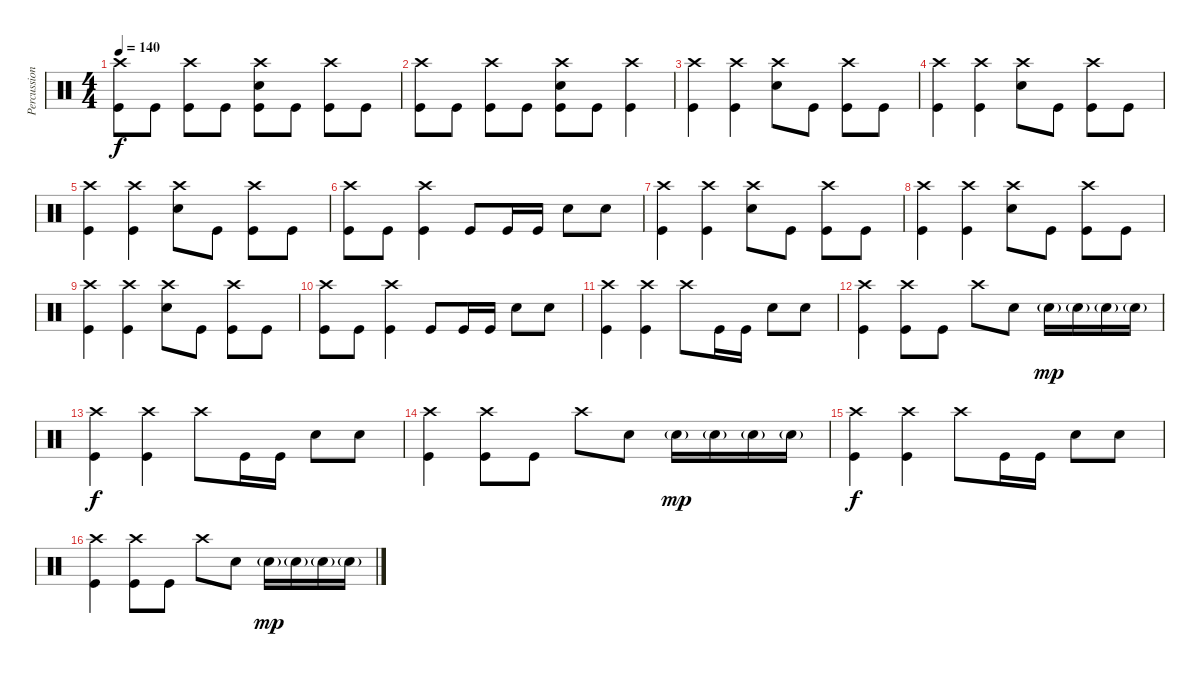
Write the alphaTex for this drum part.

\track ("Percussion" "Percussion") {instrument percussion}
\staff {score}
\articulation defaults
\ts (4 4)
\tempo 140
\clef neutral
\ks c
("Crash high (hit)" "Kick (hit)").8{dy f} "Kick (hit)".8 ("Crash high (hit)" "Kick (hit)").8 "Kick (hit)".8 ("Crash high (hit)" "Electric Snare (hit)" "Kick (hit)").8 "Kick (hit)".8 ("Crash high (hit)" "Kick (hit)").8 "Kick (hit)".8 |
("Crash high (hit)" "Kick (hit)").8 "Kick (hit)".8 ("Crash high (hit)" "Kick (hit)").8 "Kick (hit)".8 ("Crash high (hit)" "Electric Snare (hit)" "Kick (hit)").8 "Kick (hit)".8 ("Crash high (hit)" "Kick (hit)").4 |
("Crash high (hit)" "Kick (hit)").4 ("Crash high (hit)" "Kick (hit)").4 ("Crash high (hit)" "Electric Snare (hit)").8 "Kick (hit)".8 ("Crash high (hit)" "Kick (hit)").8 "Kick (hit)".8 |
("Crash high (hit)" "Kick (hit)").4 ("Crash high (hit)" "Kick (hit)").4 ("Crash high (hit)" "Electric Snare (hit)").8 "Kick (hit)".8 ("Crash high (hit)" "Kick (hit)").8 "Kick (hit)".8 |
("Crash high (hit)" "Kick (hit)").4 ("Crash high (hit)" "Kick (hit)").4 ("Crash high (hit)" "Electric Snare (hit)").8 "Kick (hit)".8 ("Crash high (hit)" "Kick (hit)").8 "Kick (hit)".8 |
("Crash high (hit)" "Kick (hit)").8 "Kick (hit)".8 ("Crash high (hit)" "Kick (hit)").4 "Kick (hit)".8 "Kick (hit)".16 "Kick (hit)".16 "Electric Snare (hit)".8 "Electric Snare (hit)".8 |
("Crash high (hit)" "Kick (hit)").4 ("Crash high (hit)" "Kick (hit)").4 ("Crash high (hit)" "Electric Snare (hit)").8 "Kick (hit)".8 ("Crash high (hit)" "Kick (hit)").8 "Kick (hit)".8 |
("Crash high (hit)" "Kick (hit)").4 ("Crash high (hit)" "Kick (hit)").4 ("Crash high (hit)" "Electric Snare (hit)").8 "Kick (hit)".8 ("Crash high (hit)" "Kick (hit)").8 "Kick (hit)".8 |
("Crash high (hit)" "Kick (hit)").4 ("Crash high (hit)" "Kick (hit)").4 ("Crash high (hit)" "Electric Snare (hit)").8 "Kick (hit)".8 ("Crash high (hit)" "Kick (hit)").8 "Kick (hit)".8 |
("Crash high (hit)" "Kick (hit)").8 "Kick (hit)".8 ("Crash high (hit)" "Kick (hit)").4 "Kick (hit)".8 "Kick (hit)".16 "Kick (hit)".16 "Electric Snare (hit)".8 "Electric Snare (hit)".8 |
("Crash high (hit)" "Kick (hit)").4 ("Crash high (hit)" "Kick (hit)").4 "Crash high (hit)".8 "Kick (hit)".16 "Kick (hit)".16 "Electric Snare (hit)".8 "Electric Snare (hit)".8 |
("Crash high (hit)" "Kick (hit)").4 ("Crash high (hit)" "Kick (hit)").8 "Kick (hit)".8 "Crash high (hit)".8 "Snare (hit) 2".8 "Snare (hit) 2"{g}.16{dy mp} "Snare (hit) 2"{g}.16 "Snare (hit) 2"{g}.16 "Snare (hit) 2"{g}.16 |
("Crash high (hit)" "Kick (hit)").4{dy f} ("Crash high (hit)" "Kick (hit)").4 "Crash high (hit)".8 "Kick (hit)".16 "Kick (hit)".16 "Electric Snare (hit)".8 "Electric Snare (hit)".8 |
("Crash high (hit)" "Kick (hit)").4 ("Crash high (hit)" "Kick (hit)").8 "Kick (hit)".8 "Crash high (hit)".8 "Snare (hit) 2".8 "Snare (hit) 2"{g}.16{dy mp} "Snare (hit) 2"{g}.16 "Snare (hit) 2"{g}.16 "Snare (hit) 2"{g}.16 |
("Crash high (hit)" "Kick (hit)").4{dy f} ("Crash high (hit)" "Kick (hit)").4 "Crash high (hit)".8 "Kick (hit)".16 "Kick (hit)".16 "Electric Snare (hit)".8 "Electric Snare (hit)".8 |
("Crash high (hit)" "Kick (hit)").4 ("Crash high (hit)" "Kick (hit)").8 "Kick (hit)".8 "Crash high (hit)".8 "Snare (hit) 2".8 "Snare (hit) 2"{g}.16{dy mp} "Snare (hit) 2"{g}.16 "Snare (hit) 2"{g}.16 "Snare (hit) 2"{g}.16
